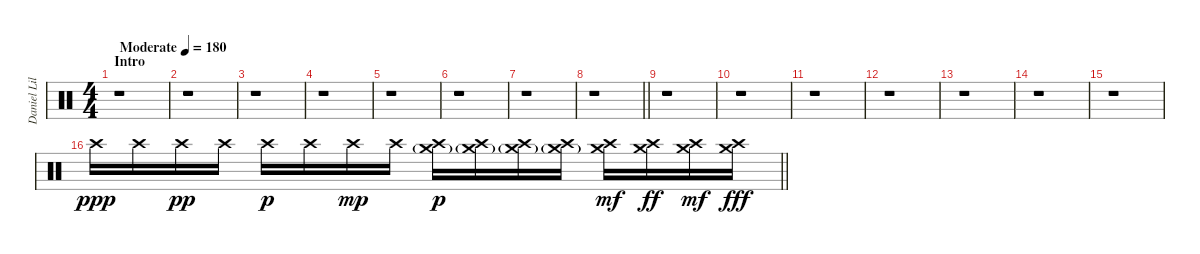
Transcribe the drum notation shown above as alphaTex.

\track ("Daniel Liljekvist" "Daniel Lil") {instrument percussion}
\staff {score}
\articulation defaults
\ts (4 4)
\section ("" "Intro")
\tempo (180 "Moderate")
\clef neutral
\ks c
r.1{dy ppp} |
r.1 |
r.1 |
r.1 |
r.1 |
r.1 |
r.1 |
\barLineRight lightlight
r.1 |
r.1 |
r.1 |
r.1 |
r.1 |
r.1 |
r.1 |
r.1 |
\barLineRight lightlight "Crash high (hit)".16 "Crash high (hit)".16 "Crash high (hit)".16{dy pp} "Crash high (hit)".16 "Crash high (hit)".16{dy p} "Crash high (hit)".16 "Crash high (hit)".16{dy mp} "Crash high (hit)".16
("Crash high (hit)" "Crash medium (hit)"{g}).16{dy p} ("Crash high (hit)" "Crash medium (hit)"{g}).16 ("Crash high (hit)" "Crash medium (hit)"{g}).16 ("Crash high (hit)" "Crash medium (hit)"{g}).16 ("Crash high (hit)" "Crash medium (hit)").16{dy mf} ("Crash high (hit)" "Crash medium (hit)").16{dy ff} ("Crash high (hit)" "Crash medium (hit)").16{dy mf} ("Crash high (hit)" "Crash medium (hit)").16{dy fff}
